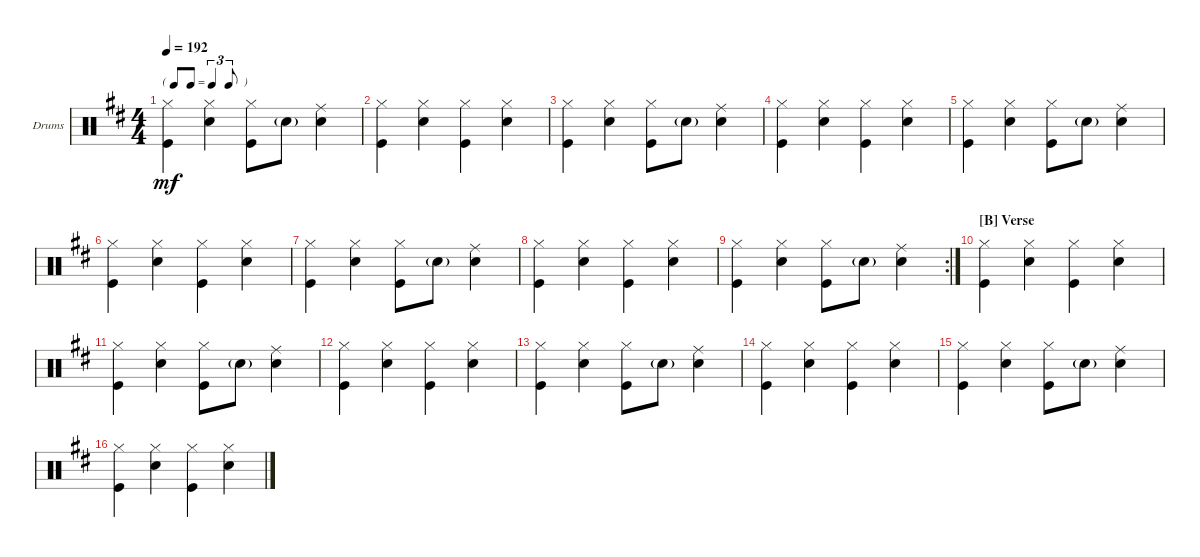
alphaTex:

\defaultSystemsLayout 4
\bracketExtendMode groupsimilarinstruments
\firstSystemTrackNameOrientation horizontal
\otherSystemsTrackNameOrientation horizontal
\track ("Drumkit" "Drums") {instrument percussion}
\staff {score}
\articulation defaults
\ts (4 4)
\tf triplet8th
\tempo 192
\clef neutral
\ks d
("Kick (hit)" "Hi-Hat (closed)").4{dy mf} ("Snare (hit) 2" "Hi-Hat (closed)").4 ("Kick (hit)" "Hi-Hat (closed)").8 "Snare (hit) 2"{g}.8 ("Snare (hit) 2" "Ride (middle)").4 |
("Kick (hit)" "Hi-Hat (closed)").4 ("Snare (hit) 2" "Hi-Hat (closed)").4 ("Kick (hit)" "Hi-Hat (closed)").4 ("Snare (hit) 2" "Hi-Hat (closed)").4 |
("Kick (hit)" "Hi-Hat (closed)").4 ("Snare (hit) 2" "Hi-Hat (closed)").4 ("Kick (hit)" "Hi-Hat (closed)").8 "Snare (hit) 2"{g}.8 ("Snare (hit) 2" "Ride (middle)").4 |
("Kick (hit)" "Hi-Hat (closed)").4 ("Snare (hit) 2" "Hi-Hat (closed)").4 ("Kick (hit)" "Hi-Hat (closed)").4 ("Snare (hit) 2" "Hi-Hat (closed)").4 |
("Kick (hit)" "Hi-Hat (closed)").4 ("Snare (hit) 2" "Hi-Hat (closed)").4 ("Kick (hit)" "Hi-Hat (closed)").8 "Snare (hit) 2"{g}.8 ("Snare (hit) 2" "Ride (middle)").4 |
("Kick (hit)" "Hi-Hat (closed)").4 ("Snare (hit) 2" "Hi-Hat (closed)").4 ("Kick (hit)" "Hi-Hat (closed)").4 ("Snare (hit) 2" "Hi-Hat (closed)").4 |
("Kick (hit)" "Hi-Hat (closed)").4 ("Snare (hit) 2" "Hi-Hat (closed)").4 ("Kick (hit)" "Hi-Hat (closed)").8 "Snare (hit) 2"{g}.8 ("Snare (hit) 2" "Ride (middle)").4 |
("Kick (hit)" "Hi-Hat (closed)").4 ("Snare (hit) 2" "Hi-Hat (closed)").4 ("Kick (hit)" "Hi-Hat (closed)").4 ("Snare (hit) 2" "Hi-Hat (closed)").4 |
\rc 2
("Kick (hit)" "Hi-Hat (closed)").4 ("Snare (hit) 2" "Hi-Hat (closed)").4 ("Kick (hit)" "Hi-Hat (closed)").8 "Snare (hit) 2"{g}.8 ("Snare (hit) 2" "Ride (middle)").4 |
\section ("B" "Verse")
\scale
0.252998 ("Kick (hit)" "Hi-Hat (closed)").4 ("Snare (hit) 2" "Hi-Hat (closed)").4 ("Kick (hit)" "Hi-Hat (closed)").4 ("Snare (hit) 2" "Hi-Hat (closed)").4 |
\scale
0.225903 ("Kick (hit)" "Hi-Hat (closed)").4 ("Snare (hit) 2" "Hi-Hat (closed)").4 ("Kick (hit)" "Hi-Hat (closed)").8 "Snare (hit) 2"{g}.8 ("Snare (hit) 2" "Ride (middle)").4 |
\scale
0.300917 ("Kick (hit)" "Hi-Hat (closed)").4 ("Snare (hit) 2" "Hi-Hat (closed)").4 ("Kick (hit)" "Hi-Hat (closed)").4 ("Snare (hit) 2" "Hi-Hat (closed)").4 |
("Kick (hit)" "Hi-Hat (closed)").4 ("Snare (hit) 2" "Hi-Hat (closed)").4 ("Kick (hit)" "Hi-Hat (closed)").8 "Snare (hit) 2"{g}.8 ("Snare (hit) 2" "Ride (middle)").4 |
\scale
0.220183 ("Kick (hit)" "Hi-Hat (closed)").4 ("Snare (hit) 2" "Hi-Hat (closed)").4 ("Kick (hit)" "Hi-Hat (closed)").4 ("Snare (hit) 2" "Hi-Hat (closed)").4 |
("Kick (hit)" "Hi-Hat (closed)").4 ("Snare (hit) 2" "Hi-Hat (closed)").4 ("Kick (hit)" "Hi-Hat (closed)").8 "Snare (hit) 2"{g}.8 ("Snare (hit) 2" "Ride (middle)").4 |
("Kick (hit)" "Hi-Hat (closed)").4 ("Snare (hit) 2" "Hi-Hat (closed)").4 ("Kick (hit)" "Hi-Hat (closed)").4 ("Snare (hit) 2" "Hi-Hat (closed)").4
